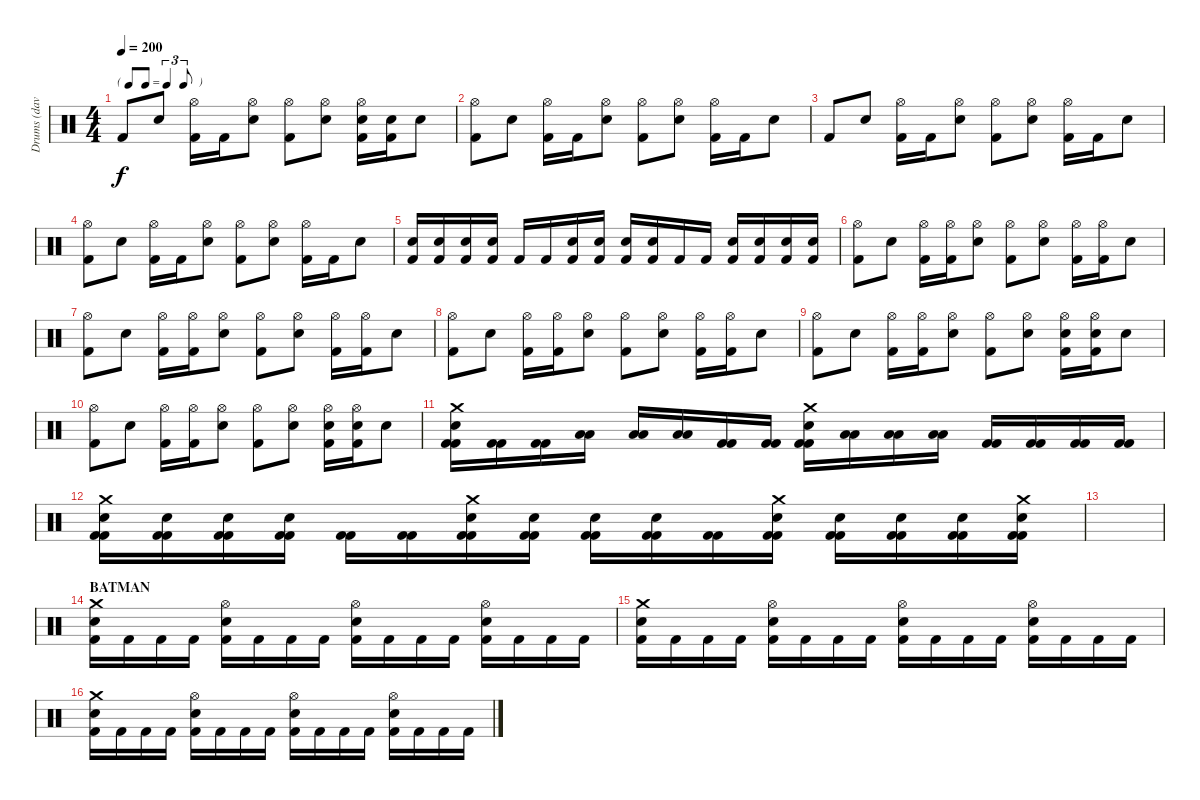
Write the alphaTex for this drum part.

\track ("Drums (dave)" "Drums (dav") {instrument percussion}
\staff {score}
\articulation defaults
\ts (4 4)
\tf triplet8th
\tempo 200
\clef neutral
\ks c "Kick (hit) 2".8{dy f} "Snare (hit) 2".8
("Hi-Hat (open)" "Kick (hit) 2").16 "Kick (hit) 2".16 ("Hi-Hat (open)" "Snare (hit) 2").8 ("Hi-Hat (open)" "Kick (hit) 2").8 ("Hi-Hat (open)" "Snare (hit) 2").8 ("Hi-Hat (open)" "Snare (hit) 2" "Kick (hit) 2").16 ("Snare (hit) 2" "Kick (hit) 2").16 "Snare (hit) 2".8 |
("Hi-Hat (open)" "Kick (hit) 2").8 "Snare (hit) 2".8 ("Hi-Hat (open)" "Kick (hit) 2").16 "Kick (hit) 2".16 ("Hi-Hat (open)" "Snare (hit) 2").8 ("Hi-Hat (open)" "Kick (hit) 2").8 ("Hi-Hat (open)" "Snare (hit) 2").8 ("Hi-Hat (open)" "Kick (hit) 2").16 "Kick (hit) 2".16 "Snare (hit) 2".8 |
"Kick (hit) 2".8 "Snare (hit) 2".8 ("Hi-Hat (open)" "Kick (hit) 2").16 "Kick (hit) 2".16 ("Hi-Hat (open)" "Snare (hit) 2").8 ("Hi-Hat (open)" "Kick (hit) 2").8 ("Hi-Hat (open)" "Snare (hit) 2").8 ("Hi-Hat (open)" "Kick (hit) 2").16 "Kick (hit) 2".16 "Snare (hit) 2".8 |
("Hi-Hat (open)" "Kick (hit) 2").8 "Snare (hit) 2".8 ("Hi-Hat (open)" "Kick (hit) 2").16 "Kick (hit) 2".16 ("Hi-Hat (open)" "Snare (hit) 2").8 ("Hi-Hat (open)" "Kick (hit) 2").8 ("Hi-Hat (open)" "Snare (hit) 2").8 ("Hi-Hat (open)" "Kick (hit) 2").16 "Kick (hit) 2".16 "Snare (hit) 2".8 |
("Snare (hit) 2" "Kick (hit) 2").16 ("Snare (hit) 2" "Kick (hit) 2").16 ("Snare (hit) 2" "Kick (hit) 2").16 ("Snare (hit) 2" "Kick (hit) 2").16 "Kick (hit) 2".16 "Kick (hit) 2".16 ("Snare (hit) 2" "Kick (hit) 2").16 ("Snare (hit) 2" "Kick (hit) 2").16 ("Snare (hit) 2" "Kick (hit) 2").16 ("Snare (hit) 2" "Kick (hit) 2").16 "Kick (hit) 2".16 "Kick (hit) 2".16 ("Snare (hit) 2" "Kick (hit) 2").16 ("Snare (hit) 2" "Kick (hit) 2").16 ("Snare (hit) 2" "Kick (hit) 2").16 ("Snare (hit) 2" "Kick (hit) 2").16 |
("Hi-Hat (open)" "Kick (hit) 2").8 "Snare (hit) 2".8 ("Hi-Hat (open)" "Kick (hit) 2").16 ("Hi-Hat (open)" "Kick (hit) 2").16 ("Hi-Hat (open)" "Snare (hit) 2").8 ("Hi-Hat (open)" "Kick (hit) 2").8 ("Hi-Hat (open)" "Snare (hit) 2").8 ("Hi-Hat (open)" "Kick (hit) 2").16 ("Hi-Hat (open)" "Kick (hit) 2").16 "Snare (hit) 2".8 |
("Hi-Hat (open)" "Kick (hit) 2").8 "Snare (hit) 2".8 ("Hi-Hat (open)" "Kick (hit) 2").16 ("Hi-Hat (open)" "Kick (hit) 2").16 ("Hi-Hat (open)" "Snare (hit) 2").8 ("Hi-Hat (open)" "Kick (hit) 2").8 ("Hi-Hat (open)" "Snare (hit) 2").8 ("Hi-Hat (open)" "Kick (hit) 2").16 ("Hi-Hat (open)" "Kick (hit) 2").16 "Snare (hit) 2".8 |
("Hi-Hat (open)" "Kick (hit) 2").8 "Snare (hit) 2".8 ("Hi-Hat (open)" "Kick (hit) 2").16 ("Hi-Hat (open)" "Kick (hit) 2").16 ("Hi-Hat (open)" "Snare (hit) 2").8 ("Hi-Hat (open)" "Kick (hit) 2").8 ("Hi-Hat (open)" "Snare (hit) 2").8 ("Hi-Hat (open)" "Kick (hit) 2").16 ("Hi-Hat (open)" "Kick (hit) 2").16 "Snare (hit) 2".8 |
("Hi-Hat (open)" "Kick (hit) 2").8 "Snare (hit) 2".8 ("Hi-Hat (open)" "Kick (hit) 2").16 ("Hi-Hat (open)" "Kick (hit) 2").16 ("Hi-Hat (open)" "Snare (hit) 2").8 ("Hi-Hat (open)" "Kick (hit) 2").8 ("Hi-Hat (open)" "Snare (hit) 2").8 ("Hi-Hat (open)" "Snare (hit) 2" "Kick (hit) 2").16 ("Hi-Hat (open)" "Snare (hit) 2" "Kick (hit) 2").16 "Snare (hit) 2".8 |
("Hi-Hat (open)" "Kick (hit) 2").8 "Snare (hit) 2".8 ("Hi-Hat (open)" "Kick (hit) 2").16 ("Hi-Hat (open)" "Kick (hit) 2").16 ("Hi-Hat (open)" "Snare (hit) 2").8 ("Hi-Hat (open)" "Kick (hit) 2").8 ("Hi-Hat (open)" "Snare (hit) 2").8 ("Hi-Hat (open)" "Snare (hit) 2" "Kick (hit) 2").16 ("Hi-Hat (open)" "Snare (hit) 2" "Kick (hit) 2").16 "Snare (hit) 2".8 |
("Crash medium (hit)" "Snare (hit) 2" "Kick (hit) 2" "Kick (hit) 2").16 ("Kick (hit) 2" "Kick (hit) 2").16 ("Kick (hit) 2" "Kick (hit) 2").16 ("Low Floor Tom (hit)" "Low Floor Tom (hit)").16 ("Low Floor Tom (hit)" "Low Floor Tom (hit)").16 ("Low Floor Tom (hit)" "Low Floor Tom (hit)").16 ("Kick (hit) 2" "Kick (hit) 2").16 ("Kick (hit) 2" "Kick (hit) 2").16 ("Crash medium (hit)" "Snare (hit) 2" "Kick (hit) 2" "Kick (hit) 2").16 ("Low Floor Tom (hit)" "Low Floor Tom (hit)").16 ("Low Floor Tom (hit)" "Low Floor Tom (hit)").16 ("Low Floor Tom (hit)" "Low Floor Tom (hit)").16 ("Kick (hit) 2" "Kick (hit) 2").16 ("Kick (hit) 2" "Kick (hit) 2").16 ("Kick (hit) 2" "Kick (hit) 2").16 ("Kick (hit) 2" "Kick (hit) 2").16 |
("Crash medium (hit)" "Snare (hit) 2" "Kick (hit) 2" "Kick (hit) 2").16 ("Snare (hit) 2" "Kick (hit) 2" "Kick (hit) 2").16 ("Snare (hit) 2" "Kick (hit) 2" "Kick (hit) 2").16 ("Snare (hit) 2" "Kick (hit) 2" "Kick (hit) 2").16 ("Kick (hit) 2" "Kick (hit) 2").16 ("Kick (hit) 2" "Kick (hit) 2").16 ("Crash medium (hit)" "Snare (hit) 2" "Kick (hit) 2" "Kick (hit) 2").16 ("Snare (hit) 2" "Kick (hit) 2" "Kick (hit) 2").16 ("Snare (hit) 2" "Kick (hit) 2" "Kick (hit) 2").16 ("Snare (hit) 2" "Kick (hit) 2" "Kick (hit) 2").16 ("Kick (hit) 2" "Kick (hit) 2").16 ("Crash medium (hit)" "Snare (hit) 2" "Kick (hit) 2" "Kick (hit) 2").16 ("Snare (hit) 2" "Kick (hit) 2" "Kick (hit) 2").16 ("Snare (hit) 2" "Kick (hit) 2" "Kick (hit) 2").16 ("Snare (hit) 2" "Kick (hit) 2" "Kick (hit) 2").16 ("Crash medium (hit)" "Snare (hit) 2" "Kick (hit) 2" "Kick (hit) 2").16 |
|
\section ("" "BATMAN")
("Crash medium (hit)" "Snare (hit) 2" "Kick (hit) 2").16 "Kick (hit) 2".16 "Kick (hit) 2".16 "Kick (hit) 2".16 ("Hi-Hat (open)" "Snare (hit) 2" "Kick (hit) 2").16 "Kick (hit) 2".16 "Kick (hit) 2".16 "Kick (hit) 2".16 ("Hi-Hat (open)" "Snare (hit) 2" "Kick (hit) 2").16 "Kick (hit) 2".16 "Kick (hit) 2".16 "Kick (hit) 2".16 ("Hi-Hat (open)" "Snare (hit) 2" "Kick (hit) 2").16 "Kick (hit) 2".16 "Kick (hit) 2".16 "Kick (hit) 2".16 |
("Crash medium (hit)" "Snare (hit) 2" "Kick (hit) 2").16 "Kick (hit) 2".16 "Kick (hit) 2".16 "Kick (hit) 2".16 ("Hi-Hat (open)" "Snare (hit) 2" "Kick (hit) 2").16 "Kick (hit) 2".16 "Kick (hit) 2".16 "Kick (hit) 2".16 ("Hi-Hat (open)" "Snare (hit) 2" "Kick (hit) 2").16 "Kick (hit) 2".16 "Kick (hit) 2".16 "Kick (hit) 2".16 ("Hi-Hat (open)" "Snare (hit) 2" "Kick (hit) 2").16 "Kick (hit) 2".16 "Kick (hit) 2".16 "Kick (hit) 2".16 |
("Crash medium (hit)" "Snare (hit) 2" "Kick (hit) 2").16 "Kick (hit) 2".16 "Kick (hit) 2".16 "Kick (hit) 2".16 ("Hi-Hat (open)" "Snare (hit) 2" "Kick (hit) 2").16 "Kick (hit) 2".16 "Kick (hit) 2".16 "Kick (hit) 2".16 ("Hi-Hat (open)" "Snare (hit) 2" "Kick (hit) 2").16 "Kick (hit) 2".16 "Kick (hit) 2".16 "Kick (hit) 2".16 ("Hi-Hat (open)" "Snare (hit) 2" "Kick (hit) 2").16 "Kick (hit) 2".16 "Kick (hit) 2".16 "Kick (hit) 2".16
